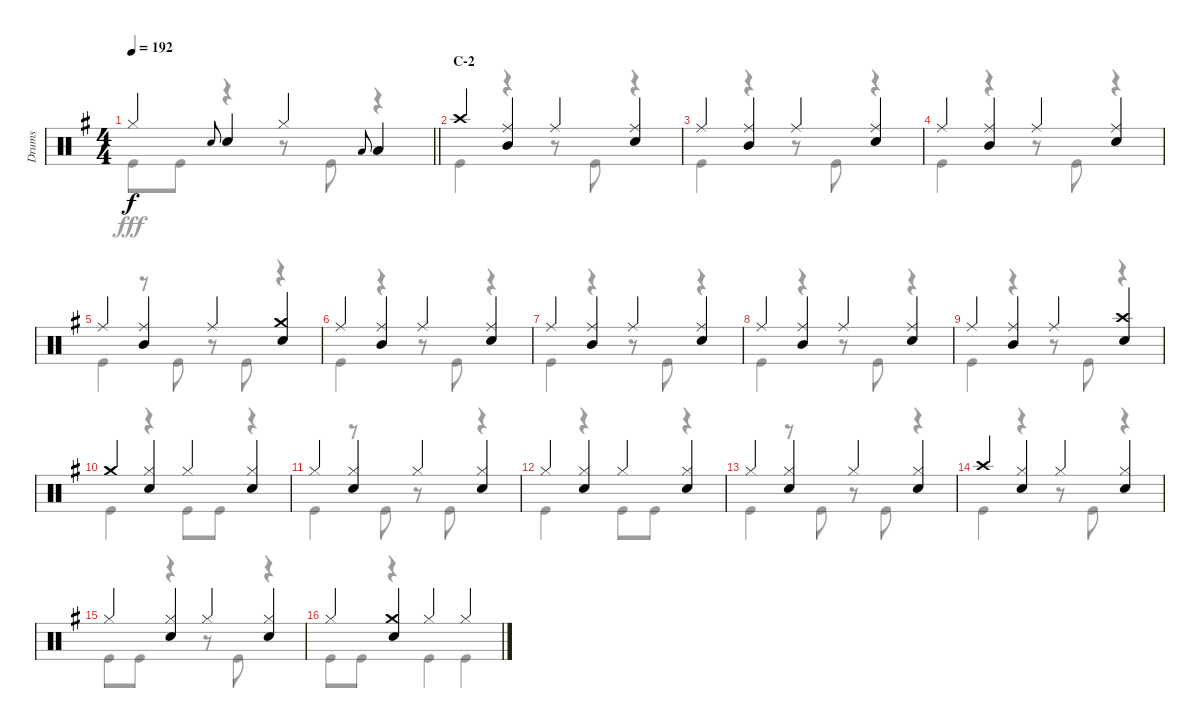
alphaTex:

\track ("Drums" "Drums") {instrument percussion}
\staff {score}
\articulation defaults
\voice
\ts (4 4)
\tempo 192
\clef neutral
\barLineRight lightlight
\ks g "Hi-Hat (closed)".4{dy f} "Snare (hit) 2".8{gr onbeat} "Snare (hit) 2".4 "Hi-Hat (closed)".4 "Low Tom (hit)".8{gr onbeat} "Low Tom (hit)".4
|
\section ("" "C-2")
"Crash high (hit)".4 ("Ride (middle)" "Mid Tom (hit)").4 "Ride (middle)".4 ("Ride (middle)" "Snare (hit) 2").4 |
"Ride (middle)".4 ("Ride (middle)" "Mid Tom (hit)").4 "Ride (middle)".4 ("Ride (middle)" "Snare (hit) 2").4 |
"Ride (middle)".4 ("Ride (middle)" "Mid Tom (hit)").4 "Ride (middle)".4 ("Ride (middle)" "Snare (hit) 2").4 |
"Ride (middle)".4 ("Ride (middle)" "Mid Tom (hit)").4 "Ride (middle)".4 ("Crash medium (hit)" "Snare (hit) 2").4 |
"Ride (middle)".4 ("Ride (middle)" "Mid Tom (hit)").4 "Ride (middle)".4 ("Ride (middle)" "Snare (hit) 2").4 |
"Ride (middle)".4 ("Ride (middle)" "Mid Tom (hit)").4 "Ride (middle)".4 ("Ride (middle)" "Snare (hit) 2").4 |
"Ride (middle)".4 ("Ride (middle)" "Mid Tom (hit)").4 "Ride (middle)".4 ("Ride (middle)" "Snare (hit) 2").4 |
"Ride (middle)".4 ("Ride (middle)" "Mid Tom (hit)").4 "Ride (middle)".4 ("Crash high (hit)" "Snare (hit) 2").4 |
"Crash medium (hit)".4 ("Hi-Hat (closed)" "Snare (hit) 2").4 "Hi-Hat (closed)".4 ("Hi-Hat (closed)" "Snare (hit) 2").4 |
"Hi-Hat (closed)".4 ("Hi-Hat (closed)" "Snare (hit) 2").4 "Hi-Hat (closed)".4 ("Hi-Hat (closed)" "Snare (hit) 2").4 |
"Hi-Hat (closed)".4 ("Hi-Hat (closed)" "Snare (hit) 2").4 "Hi-Hat (closed)".4 ("Hi-Hat (closed)" "Snare (hit) 2").4 |
"Hi-Hat (closed)".4 ("Hi-Hat (closed)" "Snare (hit) 2").4 "Hi-Hat (closed)".4 ("Hi-Hat (closed)" "Snare (hit) 2").4 |
"Crash high (hit)".4 ("Hi-Hat (closed)" "Snare (hit) 2").4 "Hi-Hat (closed)".4 ("Hi-Hat (closed)" "Snare (hit) 2").4 |
"Hi-Hat (closed)".4 ("Hi-Hat (closed)" "Snare (hit) 2").4 "Hi-Hat (closed)".4 ("Hi-Hat (closed)" "Snare (hit) 2").4 |
"Hi-Hat (closed)".4 ("Crash medium (hit)" "Snare (hit) 2").4 "Hi-Hat (closed)".4 "Hi-Hat (closed)".4
\voice
\clef neutral
\ottava regular
\simile none
\barLineRight lightlight
\ks g "Kick (hit)".8{dy fff} "Kick (hit)".8
r.4 r.8 "Kick (hit)".8 r.4 |
"Kick (hit)".4 r.4 r.8 "Kick (hit)".8 r.4 |
"Kick (hit)".4 r.4 r.8 "Kick (hit)".8 r.4 |
"Kick (hit)".4 r.4 r.8 "Kick (hit)".8 r.4 |
"Kick (hit)".4 r.8 "Kick (hit)".8 r.8 "Kick (hit)".8 r.4 |
"Kick (hit)".4 r.4 r.8 "Kick (hit)".8 r.4 |
"Kick (hit)".4 r.4 r.8 "Kick (hit)".8 r.4 |
"Kick (hit)".4 r.4 r.8 "Kick (hit)".8 r.4 |
"Kick (hit)".4 r.4 r.8 "Kick (hit)".8 r.4 |
"Kick (hit)".4 r.4 "Kick (hit)".8 "Kick (hit)".8 r.4 |
"Kick (hit)".4 r.8 "Kick (hit)".8 r.8 "Kick (hit)".8 r.4 |
"Kick (hit)".4 r.4 "Kick (hit)".8 "Kick (hit)".8 r.4 |
"Kick (hit)".4 r.8 "Kick (hit)".8 r.8 "Kick (hit)".8 r.4 |
"Kick (hit)".4 r.4 r.8 "Kick (hit)".8 r.4 |
"Kick (hit)".8 "Kick (hit)".8 r.4 r.8 "Kick (hit)".8 r.4 |
"Kick (hit)".8 "Kick (hit)".8 r.4 "Kick (hit)".4 "Kick (hit)".4
